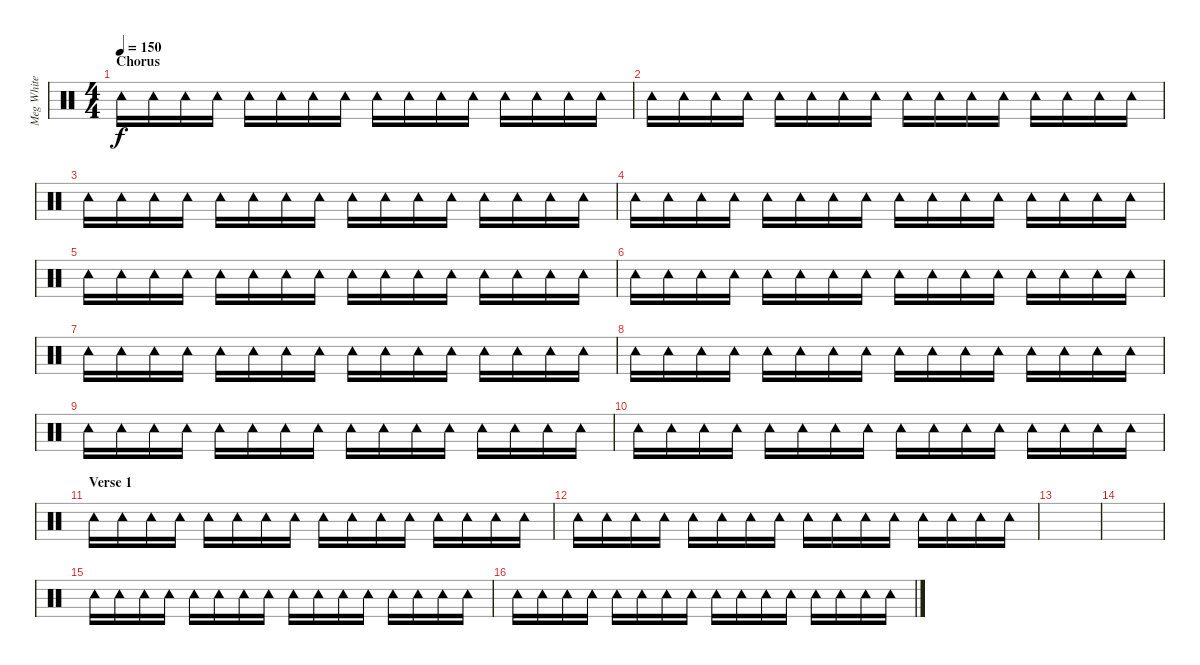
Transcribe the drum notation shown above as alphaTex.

\track ("Meg White - Tambourine" "Meg White ") {instrument percussion}
\staff {score}
\articulation defaults
\ts (4 4)
\section ("" "Chorus")
\tempo 150
\clef neutral
\ks c "Tambourine (hit)".16{dy f} "Tambourine (hit)".16 "Tambourine (hit)".16 "Tambourine (hit)".16 "Tambourine (hit)".16 "Tambourine (hit)".16 "Tambourine (hit)".16 "Tambourine (hit)".16 "Tambourine (hit)".16 "Tambourine (hit)".16 "Tambourine (hit)".16 "Tambourine (hit)".16 "Tambourine (hit)".16 "Tambourine (hit)".16 "Tambourine (hit)".16 "Tambourine (hit)".16
|
"Tambourine (hit)".16 "Tambourine (hit)".16 "Tambourine (hit)".16 "Tambourine (hit)".16 "Tambourine (hit)".16 "Tambourine (hit)".16 "Tambourine (hit)".16 "Tambourine (hit)".16 "Tambourine (hit)".16 "Tambourine (hit)".16 "Tambourine (hit)".16 "Tambourine (hit)".16 "Tambourine (hit)".16 "Tambourine (hit)".16 "Tambourine (hit)".16 "Tambourine (hit)".16 |
"Tambourine (hit)".16 "Tambourine (hit)".16 "Tambourine (hit)".16 "Tambourine (hit)".16 "Tambourine (hit)".16 "Tambourine (hit)".16 "Tambourine (hit)".16 "Tambourine (hit)".16 "Tambourine (hit)".16 "Tambourine (hit)".16 "Tambourine (hit)".16 "Tambourine (hit)".16 "Tambourine (hit)".16 "Tambourine (hit)".16 "Tambourine (hit)".16 "Tambourine (hit)".16 |
"Tambourine (hit)".16 "Tambourine (hit)".16 "Tambourine (hit)".16 "Tambourine (hit)".16 "Tambourine (hit)".16 "Tambourine (hit)".16 "Tambourine (hit)".16 "Tambourine (hit)".16 "Tambourine (hit)".16 "Tambourine (hit)".16 "Tambourine (hit)".16 "Tambourine (hit)".16 "Tambourine (hit)".16 "Tambourine (hit)".16 "Tambourine (hit)".16 "Tambourine (hit)".16 |
"Tambourine (hit)".16 "Tambourine (hit)".16 "Tambourine (hit)".16 "Tambourine (hit)".16 "Tambourine (hit)".16 "Tambourine (hit)".16 "Tambourine (hit)".16 "Tambourine (hit)".16 "Tambourine (hit)".16 "Tambourine (hit)".16 "Tambourine (hit)".16 "Tambourine (hit)".16 "Tambourine (hit)".16 "Tambourine (hit)".16 "Tambourine (hit)".16 "Tambourine (hit)".16 |
"Tambourine (hit)".16 "Tambourine (hit)".16 "Tambourine (hit)".16 "Tambourine (hit)".16 "Tambourine (hit)".16 "Tambourine (hit)".16 "Tambourine (hit)".16 "Tambourine (hit)".16 "Tambourine (hit)".16 "Tambourine (hit)".16 "Tambourine (hit)".16 "Tambourine (hit)".16 "Tambourine (hit)".16 "Tambourine (hit)".16 "Tambourine (hit)".16 "Tambourine (hit)".16 |
"Tambourine (hit)".16 "Tambourine (hit)".16 "Tambourine (hit)".16 "Tambourine (hit)".16 "Tambourine (hit)".16 "Tambourine (hit)".16 "Tambourine (hit)".16 "Tambourine (hit)".16 "Tambourine (hit)".16 "Tambourine (hit)".16 "Tambourine (hit)".16 "Tambourine (hit)".16 "Tambourine (hit)".16 "Tambourine (hit)".16 "Tambourine (hit)".16 "Tambourine (hit)".16 |
"Tambourine (hit)".16 "Tambourine (hit)".16 "Tambourine (hit)".16 "Tambourine (hit)".16 "Tambourine (hit)".16 "Tambourine (hit)".16 "Tambourine (hit)".16 "Tambourine (hit)".16 "Tambourine (hit)".16 "Tambourine (hit)".16 "Tambourine (hit)".16 "Tambourine (hit)".16 "Tambourine (hit)".16 "Tambourine (hit)".16 "Tambourine (hit)".16 "Tambourine (hit)".16 |
"Tambourine (hit)".16 "Tambourine (hit)".16 "Tambourine (hit)".16 "Tambourine (hit)".16 "Tambourine (hit)".16 "Tambourine (hit)".16 "Tambourine (hit)".16 "Tambourine (hit)".16 "Tambourine (hit)".16 "Tambourine (hit)".16 "Tambourine (hit)".16 "Tambourine (hit)".16 "Tambourine (hit)".16 "Tambourine (hit)".16 "Tambourine (hit)".16 "Tambourine (hit)".16 |
"Tambourine (hit)".16 "Tambourine (hit)".16 "Tambourine (hit)".16 "Tambourine (hit)".16 "Tambourine (hit)".16 "Tambourine (hit)".16 "Tambourine (hit)".16 "Tambourine (hit)".16 "Tambourine (hit)".16 "Tambourine (hit)".16 "Tambourine (hit)".16 "Tambourine (hit)".16 "Tambourine (hit)".16 "Tambourine (hit)".16 "Tambourine (hit)".16 "Tambourine (hit)".16 |
\section ("" "Verse 1")
"Tambourine (hit)".16 "Tambourine (hit)".16 "Tambourine (hit)".16 "Tambourine (hit)".16 "Tambourine (hit)".16 "Tambourine (hit)".16 "Tambourine (hit)".16 "Tambourine (hit)".16 "Tambourine (hit)".16 "Tambourine (hit)".16 "Tambourine (hit)".16 "Tambourine (hit)".16 "Tambourine (hit)".16 "Tambourine (hit)".16 "Tambourine (hit)".16 "Tambourine (hit)".16 |
"Tambourine (hit)".16 "Tambourine (hit)".16 "Tambourine (hit)".16 "Tambourine (hit)".16 "Tambourine (hit)".16 "Tambourine (hit)".16 "Tambourine (hit)".16 "Tambourine (hit)".16 "Tambourine (hit)".16 "Tambourine (hit)".16 "Tambourine (hit)".16 "Tambourine (hit)".16 "Tambourine (hit)".16 "Tambourine (hit)".16 "Tambourine (hit)".16 "Tambourine (hit)".16 |
|
|
"Tambourine (hit)".16 "Tambourine (hit)".16 "Tambourine (hit)".16 "Tambourine (hit)".16 "Tambourine (hit)".16 "Tambourine (hit)".16 "Tambourine (hit)".16 "Tambourine (hit)".16 "Tambourine (hit)".16 "Tambourine (hit)".16 "Tambourine (hit)".16 "Tambourine (hit)".16 "Tambourine (hit)".16 "Tambourine (hit)".16 "Tambourine (hit)".16 "Tambourine (hit)".16 |
"Tambourine (hit)".16 "Tambourine (hit)".16 "Tambourine (hit)".16 "Tambourine (hit)".16 "Tambourine (hit)".16 "Tambourine (hit)".16 "Tambourine (hit)".16 "Tambourine (hit)".16 "Tambourine (hit)".16 "Tambourine (hit)".16 "Tambourine (hit)".16 "Tambourine (hit)".16 "Tambourine (hit)".16 "Tambourine (hit)".16 "Tambourine (hit)".16 "Tambourine (hit)".16
